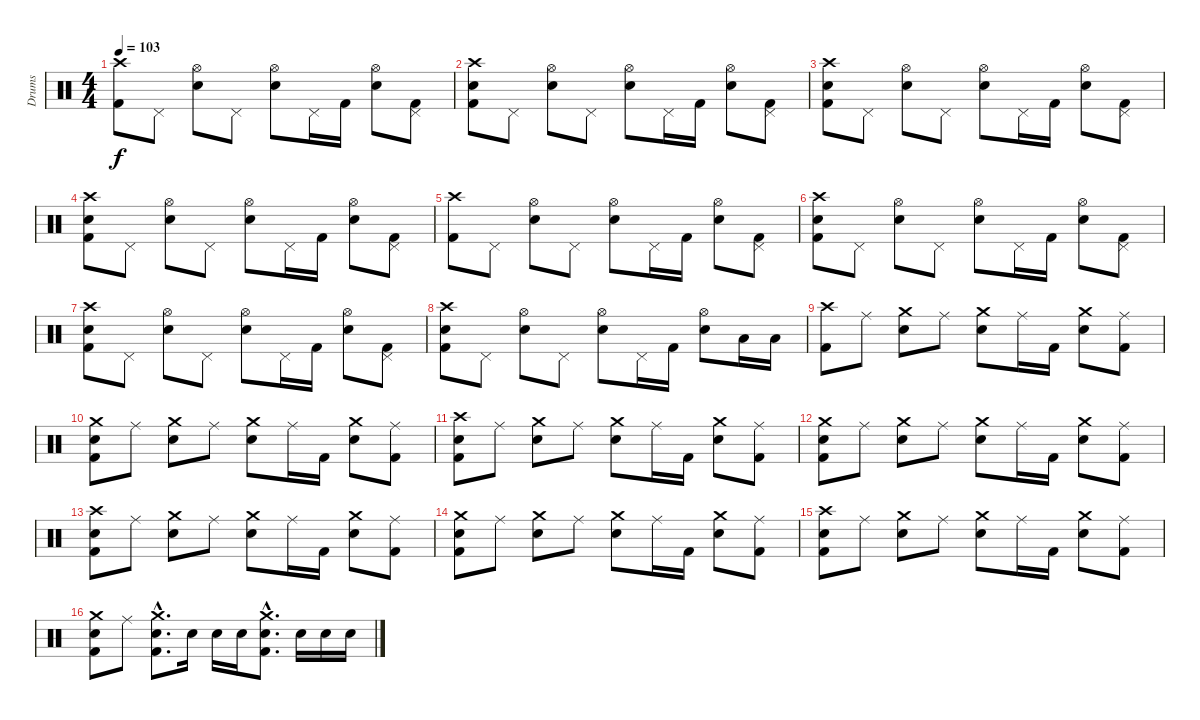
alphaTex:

\track ("Drums" "Drums") {instrument percussion}
\staff {score}
\articulation defaults
\ts (4 4)
\tempo 103
\clef neutral
\ks c
("Crash high (hit)" "Kick (hit) 2").8{dy f} "Pedal Hi-Hat (hit)".8 ("Hi-Hat (open)" "Electric Snare (hit)").8 "Pedal Hi-Hat (hit)".8 ("Hi-Hat (open)" "Electric Snare (hit)").8 "Pedal Hi-Hat (hit)".16 "Kick (hit) 2".16 ("Hi-Hat (open)" "Electric Snare (hit)").8 ("Pedal Hi-Hat (hit)" "Kick (hit) 2").8 |
("Crash high (hit)" "Electric Snare (hit)" "Kick (hit) 2").8 "Pedal Hi-Hat (hit)".8 ("Hi-Hat (open)" "Electric Snare (hit)").8 "Pedal Hi-Hat (hit)".8 ("Hi-Hat (open)" "Electric Snare (hit)").8 "Pedal Hi-Hat (hit)".16 "Kick (hit) 2".16 ("Hi-Hat (open)" "Electric Snare (hit)").8 ("Pedal Hi-Hat (hit)" "Kick (hit) 2").8 |
("Crash high (hit)" "Electric Snare (hit)" "Kick (hit) 2").8 "Pedal Hi-Hat (hit)".8 ("Hi-Hat (open)" "Electric Snare (hit)").8 "Pedal Hi-Hat (hit)".8 ("Hi-Hat (open)" "Electric Snare (hit)").8 "Pedal Hi-Hat (hit)".16 "Kick (hit) 2".16 ("Hi-Hat (open)" "Electric Snare (hit)").8 ("Pedal Hi-Hat (hit)" "Kick (hit) 2").8 |
("Crash high (hit)" "Electric Snare (hit)" "Kick (hit) 2").8 "Pedal Hi-Hat (hit)".8 ("Hi-Hat (open)" "Electric Snare (hit)").8 "Pedal Hi-Hat (hit)".8 ("Hi-Hat (open)" "Electric Snare (hit)").8 "Pedal Hi-Hat (hit)".16 "Kick (hit) 2".16 ("Hi-Hat (open)" "Electric Snare (hit)").8 ("Pedal Hi-Hat (hit)" "Kick (hit) 2").8 |
("Crash high (hit)" "Kick (hit) 2").8 "Pedal Hi-Hat (hit)".8 ("Hi-Hat (open)" "Electric Snare (hit)").8 "Pedal Hi-Hat (hit)".8 ("Hi-Hat (open)" "Electric Snare (hit)").8 "Pedal Hi-Hat (hit)".16 "Kick (hit) 2".16 ("Hi-Hat (open)" "Electric Snare (hit)").8 ("Pedal Hi-Hat (hit)" "Kick (hit) 2").8 |
("Crash high (hit)" "Electric Snare (hit)" "Kick (hit) 2").8 "Pedal Hi-Hat (hit)".8 ("Hi-Hat (open)" "Electric Snare (hit)").8 "Pedal Hi-Hat (hit)".8 ("Hi-Hat (open)" "Electric Snare (hit)").8 "Pedal Hi-Hat (hit)".16 "Kick (hit) 2".16 ("Hi-Hat (open)" "Electric Snare (hit)").8 ("Pedal Hi-Hat (hit)" "Kick (hit) 2").8 |
("Crash high (hit)" "Electric Snare (hit)" "Kick (hit) 2").8 "Pedal Hi-Hat (hit)".8 ("Hi-Hat (open)" "Electric Snare (hit)").8 "Pedal Hi-Hat (hit)".8 ("Hi-Hat (open)" "Electric Snare (hit)").8 "Pedal Hi-Hat (hit)".16 "Kick (hit) 2".16 ("Hi-Hat (open)" "Electric Snare (hit)").8 ("Pedal Hi-Hat (hit)" "Kick (hit) 2").8 |
("Crash high (hit)" "Electric Snare (hit)" "Kick (hit) 2").8 "Pedal Hi-Hat (hit)".8 ("Hi-Hat (open)" "Electric Snare (hit)").8 "Pedal Hi-Hat (hit)".8 ("Hi-Hat (open)" "Electric Snare (hit)").8 "Pedal Hi-Hat (hit)".16 "Kick (hit) 2".16 ("Hi-Hat (open)" "Electric Snare (hit)").8 "Low Tom (hit)".16 "Low Tom (hit)".16 |
("Crash high (hit)" "Kick (hit) 2").8 "Ride (middle)".8 ("Crash medium (hit)" "Electric Snare (hit)").8 "Ride (middle)".8 ("Crash medium (hit)" "Electric Snare (hit)").8 "Ride (middle)".16 "Kick (hit) 2".16 ("Crash medium (hit)" "Electric Snare (hit)").8 ("Ride (middle)" "Kick (hit) 2").8 |
("Crash medium (hit)" "Electric Snare (hit)" "Kick (hit) 2").8 "Ride (middle)".8 ("Crash medium (hit)" "Electric Snare (hit)").8 "Ride (middle)".8 ("Crash medium (hit)" "Electric Snare (hit)").8 "Ride (middle)".16 "Kick (hit) 2".16 ("Crash medium (hit)" "Electric Snare (hit)").8 ("Ride (middle)" "Kick (hit) 2").8 |
("Crash high (hit)" "Electric Snare (hit)" "Kick (hit) 2").8 "Ride (middle)".8 ("Crash medium (hit)" "Electric Snare (hit)").8 "Ride (middle)".8 ("Crash medium (hit)" "Electric Snare (hit)").8 "Ride (middle)".16 "Kick (hit) 2".16 ("Crash medium (hit)" "Electric Snare (hit)").8 ("Ride (middle)" "Kick (hit) 2").8 |
("Crash medium (hit)" "Electric Snare (hit)" "Kick (hit) 2").8 "Ride (middle)".8 ("Crash medium (hit)" "Electric Snare (hit)").8 "Ride (middle)".8 ("Crash medium (hit)" "Electric Snare (hit)").8 "Ride (middle)".16 "Kick (hit) 2".16 ("Crash medium (hit)" "Electric Snare (hit)").8 ("Ride (middle)" "Kick (hit) 2").8 |
("Crash high (hit)" "Electric Snare (hit)" "Kick (hit) 2").8 "Ride (middle)".8 ("Crash medium (hit)" "Electric Snare (hit)").8 "Ride (middle)".8 ("Crash medium (hit)" "Electric Snare (hit)").8 "Ride (middle)".16 "Kick (hit) 2".16 ("Crash medium (hit)" "Electric Snare (hit)").8 ("Ride (middle)" "Kick (hit) 2").8 |
("Crash medium (hit)" "Electric Snare (hit)" "Kick (hit) 2").8 "Ride (middle)".8 ("Crash medium (hit)" "Electric Snare (hit)").8 "Ride (middle)".8 ("Crash medium (hit)" "Electric Snare (hit)").8 "Ride (middle)".16 "Kick (hit) 2".16 ("Crash medium (hit)" "Electric Snare (hit)").8 ("Ride (middle)" "Kick (hit) 2").8 |
("Crash high (hit)" "Electric Snare (hit)" "Kick (hit) 2").8 "Ride (middle)".8 ("Crash medium (hit)" "Electric Snare (hit)").8 "Ride (middle)".8 ("Crash medium (hit)" "Electric Snare (hit)").8 "Ride (middle)".16 "Kick (hit) 2".16 ("Crash medium (hit)" "Electric Snare (hit)").8 ("Ride (middle)" "Kick (hit) 2").8 |
("Crash medium (hit)" "Electric Snare (hit)" "Kick (hit) 2").8 "Ride (middle)".8 ("Crash medium (hit)"{hac} "Electric Snare (hit)"{hac} "Kick (hit) 2"{hac}).8{d} "Electric Snare (hit)".16 "Electric Snare (hit)".16 "Electric Snare (hit)".16 ("Crash medium (hit)"{hac} "Electric Snare (hit)"{hac} "Kick (hit) 2"{hac}).8{d} "Electric Snare (hit)".16 "Electric Snare (hit)".16 "Electric Snare (hit)".16
